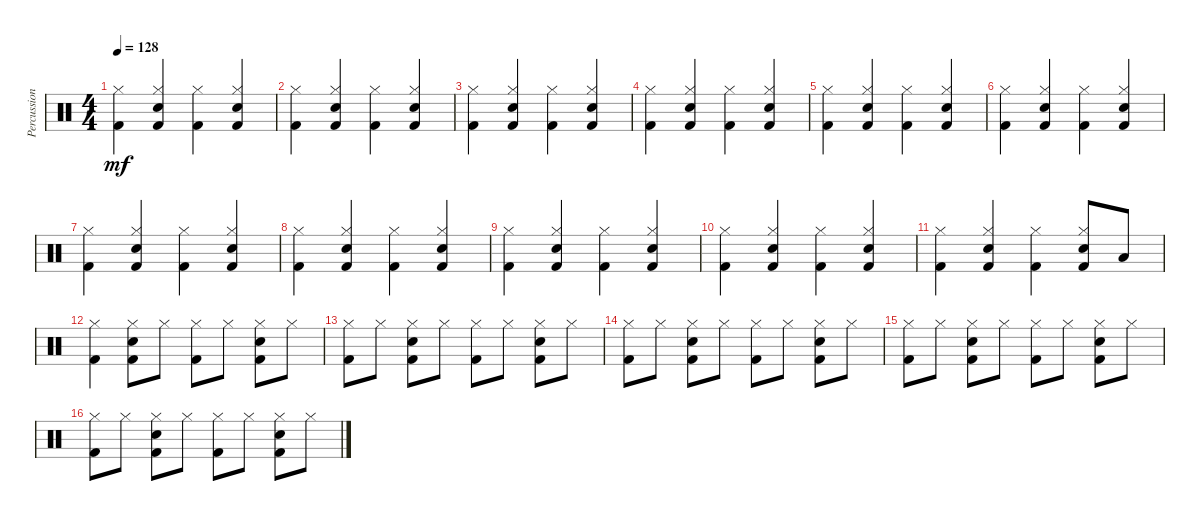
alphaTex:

\track ("Percussions" "Percussion") {instrument percussion}
\staff {score}
\articulation defaults
\ts (4 4)
\tempo 128
\clef neutral
\ks c
("Kick (hit) 2" "Hi-Hat (closed)").4{dy mf} ("Kick (hit) 2" "Hi-Hat (closed)" "Snare (hit) 2").4 ("Kick (hit) 2" "Hi-Hat (closed)").4 ("Kick (hit) 2" "Hi-Hat (closed)" "Snare (hit) 2").4 |
("Kick (hit) 2" "Hi-Hat (closed)").4 ("Kick (hit) 2" "Hi-Hat (closed)" "Snare (hit) 2").4 ("Kick (hit) 2" "Hi-Hat (closed)").4 ("Kick (hit) 2" "Hi-Hat (closed)" "Snare (hit) 2").4 |
("Kick (hit) 2" "Hi-Hat (closed)").4 ("Kick (hit) 2" "Hi-Hat (closed)" "Snare (hit) 2").4 ("Kick (hit) 2" "Hi-Hat (closed)").4 ("Kick (hit) 2" "Hi-Hat (closed)" "Snare (hit) 2").4 |
("Kick (hit) 2" "Hi-Hat (closed)").4 ("Kick (hit) 2" "Hi-Hat (closed)" "Snare (hit) 2").4 ("Kick (hit) 2" "Hi-Hat (closed)").4 ("Kick (hit) 2" "Hi-Hat (closed)" "Snare (hit) 2").4 |
("Kick (hit) 2" "Hi-Hat (closed)").4 ("Kick (hit) 2" "Hi-Hat (closed)" "Snare (hit) 2").4 ("Kick (hit) 2" "Hi-Hat (closed)").4 ("Kick (hit) 2" "Hi-Hat (closed)" "Snare (hit) 2").4 |
("Kick (hit) 2" "Hi-Hat (closed)").4 ("Kick (hit) 2" "Hi-Hat (closed)" "Snare (hit) 2").4 ("Kick (hit) 2" "Hi-Hat (closed)").4 ("Kick (hit) 2" "Hi-Hat (closed)" "Snare (hit) 2").4 |
("Kick (hit) 2" "Hi-Hat (closed)").4 ("Kick (hit) 2" "Hi-Hat (closed)" "Snare (hit) 2").4 ("Kick (hit) 2" "Hi-Hat (closed)").4 ("Kick (hit) 2" "Hi-Hat (closed)" "Snare (hit) 2").4 |
("Kick (hit) 2" "Hi-Hat (closed)").4 ("Kick (hit) 2" "Hi-Hat (closed)" "Snare (hit) 2").4 ("Kick (hit) 2" "Hi-Hat (closed)").4 ("Kick (hit) 2" "Hi-Hat (closed)" "Snare (hit) 2").4 |
("Kick (hit) 2" "Hi-Hat (closed)").4 ("Kick (hit) 2" "Hi-Hat (closed)" "Snare (hit) 2").4 ("Kick (hit) 2" "Hi-Hat (closed)").4 ("Kick (hit) 2" "Hi-Hat (closed)" "Snare (hit) 2").4 |
("Kick (hit) 2" "Hi-Hat (closed)").4 ("Kick (hit) 2" "Hi-Hat (closed)" "Snare (hit) 2").4 ("Kick (hit) 2" "Hi-Hat (closed)").4 ("Kick (hit) 2" "Hi-Hat (closed)" "Snare (hit) 2").4 |
("Kick (hit) 2" "Hi-Hat (closed)").4 ("Kick (hit) 2" "Hi-Hat (closed)" "Snare (hit) 2").4 ("Kick (hit) 2" "Hi-Hat (closed)").4 ("Kick (hit) 2" "Hi-Hat (closed)" "Snare (hit) 2").8 "Low Floor Tom (hit)".8 |
("Kick (hit) 2" "Hi-Hat (closed)").4 ("Kick (hit) 2" "Hi-Hat (closed)" "Snare (hit) 2").8 "Hi-Hat (closed)".8 ("Kick (hit) 2" "Hi-Hat (closed)").8 "Hi-Hat (closed)".8 ("Kick (hit) 2" "Hi-Hat (closed)" "Snare (hit) 2").8 "Hi-Hat (closed)".8 |
("Kick (hit) 2" "Hi-Hat (closed)").8 "Hi-Hat (closed)".8 ("Kick (hit) 2" "Hi-Hat (closed)" "Snare (hit) 2").8 "Hi-Hat (closed)".8 ("Kick (hit) 2" "Hi-Hat (closed)").8 "Hi-Hat (closed)".8 ("Kick (hit) 2" "Hi-Hat (closed)" "Snare (hit) 2").8 "Hi-Hat (closed)".8 |
("Kick (hit) 2" "Hi-Hat (closed)").8 "Hi-Hat (closed)".8 ("Kick (hit) 2" "Hi-Hat (closed)" "Snare (hit) 2").8 "Hi-Hat (closed)".8 ("Kick (hit) 2" "Hi-Hat (closed)").8 "Hi-Hat (closed)".8 ("Kick (hit) 2" "Hi-Hat (closed)" "Snare (hit) 2").8 "Hi-Hat (closed)".8 |
("Kick (hit) 2" "Hi-Hat (closed)").8 "Hi-Hat (closed)".8 ("Kick (hit) 2" "Hi-Hat (closed)" "Snare (hit) 2").8 "Hi-Hat (closed)".8 ("Kick (hit) 2" "Hi-Hat (closed)").8 "Hi-Hat (closed)".8 ("Kick (hit) 2" "Hi-Hat (closed)" "Snare (hit) 2").8 "Hi-Hat (closed)".8 |
("Kick (hit) 2" "Hi-Hat (closed)").8 "Hi-Hat (closed)".8 ("Kick (hit) 2" "Hi-Hat (closed)" "Snare (hit) 2").8 "Hi-Hat (closed)".8 ("Kick (hit) 2" "Hi-Hat (closed)").8 "Hi-Hat (closed)".8 ("Kick (hit) 2" "Hi-Hat (closed)" "Snare (hit) 2").8 "Hi-Hat (closed)".8
